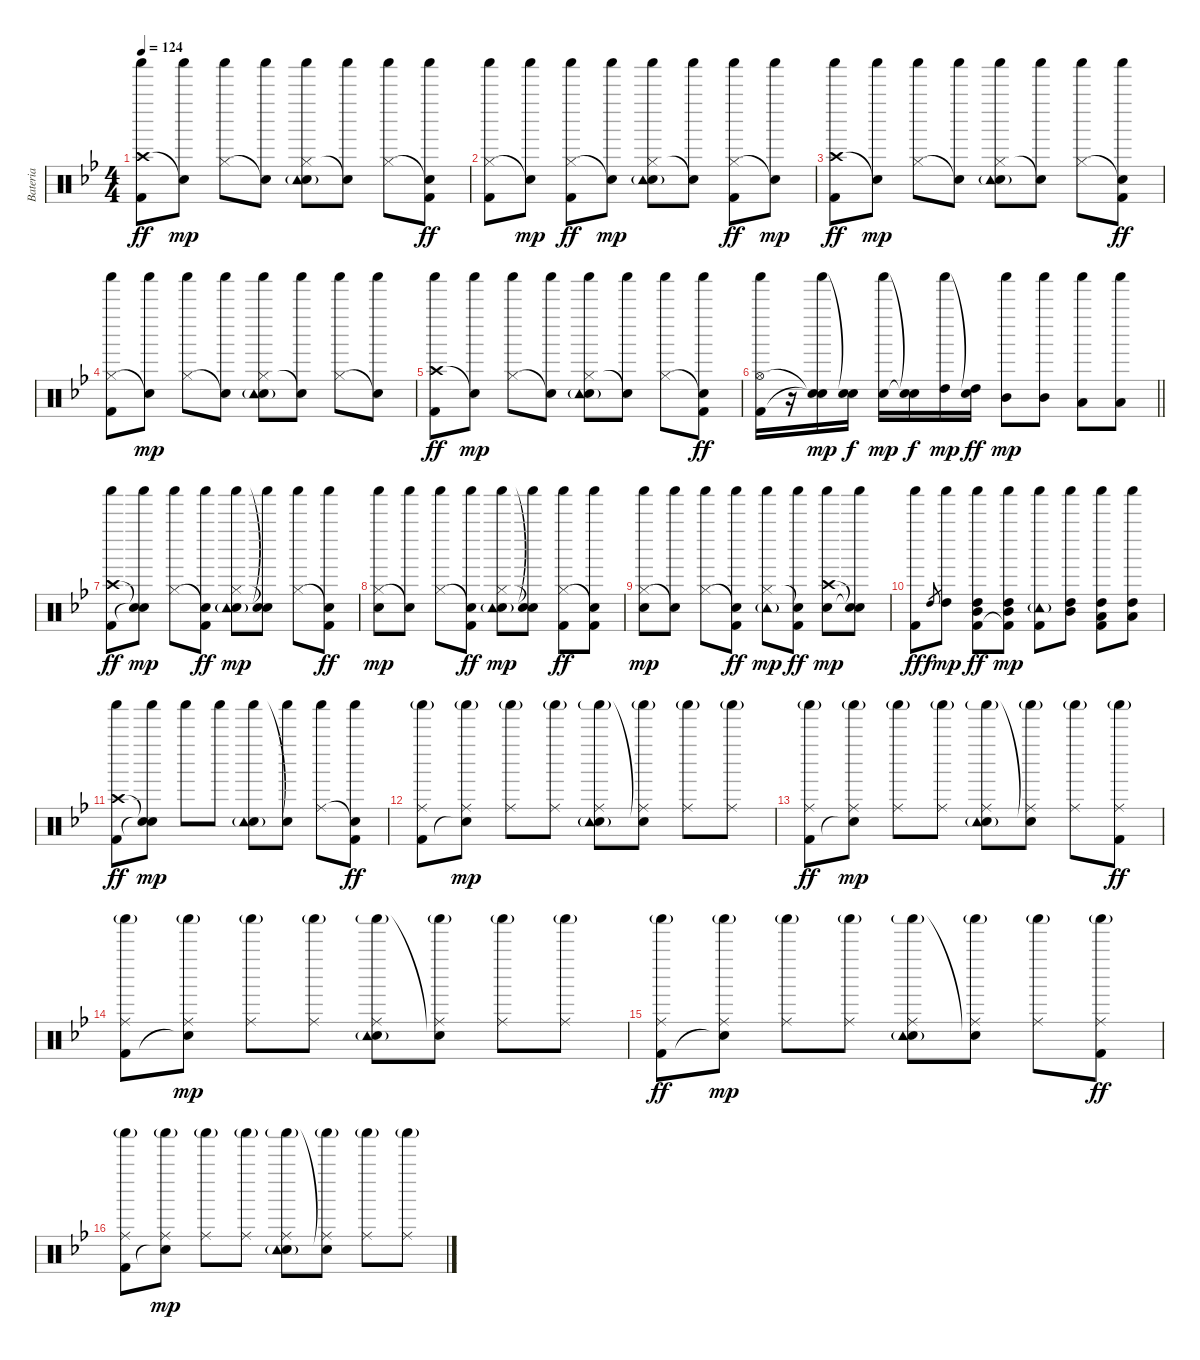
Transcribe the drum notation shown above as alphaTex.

\track ("Bateria" "Bateria") {instrument percussion}
\staff {score}
\articulation defaults
\ts (4 4)
\tempo 124
\clef neutral
\ks bb
("Crash high (hit)" "Shaker (hit)" "Kick (hit) 2").8{dy ff} ("Snare (hit)"{t} "Shaker (hit)").8{dy mp} ("Hi-Hat (closed)" "Shaker (hit)").8 ("Snare (hit)"{t} "Shaker (hit)").8 ("Hi-Hat (closed)" "Electric Snare (hit)" "Shaker (hit)" "Tambourine (hit)"{g}).8 ("Snare (hit)"{t} "Shaker (hit)").8 ("Hi-Hat (closed)" "Shaker (hit)").8 ("Snare (hit)"{t} "Shaker (hit)" "Kick (hit) 2").8{dy ff} |
("Hi-Hat (closed)" "Shaker (hit)" "Kick (hit) 2").8 ("Snare (hit)"{t} "Shaker (hit)").8{dy mp} ("Hi-Hat (closed)" "Shaker (hit)" "Kick (hit) 2").8{dy ff} ("Snare (hit)"{t} "Shaker (hit)").8{dy mp} ("Hi-Hat (closed)" "Electric Snare (hit)" "Shaker (hit)" "Tambourine (hit)"{g}).8 ("Snare (hit)"{t} "Shaker (hit)").8 ("Hi-Hat (closed)" "Shaker (hit)" "Kick (hit) 2").8{dy ff} ("Snare (hit)"{t} "Shaker (hit)").8{dy mp} |
("Crash high (hit)" "Shaker (hit)" "Kick (hit) 2").8{dy ff} ("Snare (hit)"{t} "Shaker (hit)").8{dy mp} ("Hi-Hat (closed)" "Shaker (hit)").8 ("Snare (hit)"{t} "Shaker (hit)").8 ("Hi-Hat (closed)" "Electric Snare (hit)" "Shaker (hit)" "Tambourine (hit)"{g}).8 ("Snare (hit)"{t} "Shaker (hit)").8 ("Hi-Hat (closed)" "Shaker (hit)").8 ("Snare (hit)"{t} "Shaker (hit)" "Kick (hit) 2").8{dy ff} |
("Hi-Hat (closed)" "Shaker (hit)" "Kick (hit) 2").8 ("Snare (hit)"{t} "Shaker (hit)").8{dy mp} ("Hi-Hat (closed)" "Shaker (hit)").8 ("Snare (hit)"{t} "Shaker (hit)").8 ("Hi-Hat (closed)" "Electric Snare (hit)" "Shaker (hit)" "Tambourine (hit)"{g}).8 ("Snare (hit)"{t} "Shaker (hit)").8 ("Hi-Hat (closed)" "Shaker (hit)").8 ("Snare (hit)"{t} "Shaker (hit)").8 |
("Crash high (hit)" "Shaker (hit)" "Kick (hit) 2").8{dy ff} ("Snare (hit)"{t} "Shaker (hit)").8{dy mp} ("Hi-Hat (closed)" "Shaker (hit)").8 ("Snare (hit)"{t} "Shaker (hit)").8 ("Hi-Hat (closed)" "Electric Snare (hit)" "Shaker (hit)" "Tambourine (hit)"{g}).8 ("Snare (hit)"{t} "Shaker (hit)").8 ("Hi-Hat (closed)" "Shaker (hit)").8 ("Snare (hit)"{t} "Shaker (hit)" "Kick (hit) 2").8{dy ff} |
\barLineRight lightlight
("Hi-Hat (open)" "Shaker (hit)" "Kick (hit) 2").16 r.16 ("Snare (hit)"{t} "Shaker (hit)" "Snare (hit)"{t}).16{dy mp} ("Electric Snare (hit)" "Snare (hit)"{t}).16{dy f} ("Electric Snare (hit)" "Shaker (hit)").16{dy mp} ("Snare (hit)"{t} "Snare (hit)"{t}).16{dy f} ("High Tom (hit)" "Shaker (hit)").16{dy mp} ("High Tom (hit)" "Snare (hit)"{t}).16{dy ff} ("Mid Tom (hit)" "Shaker (hit)").8{dy mp} ("Mid Tom (hit)" "Shaker (hit)").8 ("Low Tom (hit)" "Shaker (hit)").8 ("Low Tom (hit)" "Shaker (hit)").8 |
("Crash high (hit)" "Shaker (hit)" "Kick (hit) 2").8{dy ff} ("Snare (hit)"{t} "Shaker (hit)" "Snare (hit)"{t}).8{dy mp} ("Hi-Hat (closed)" "Shaker (hit)").8 ("Snare (hit)"{t} "Shaker (hit)" "Kick (hit) 2").8{dy ff} ("Hi-Hat (closed)" "Electric Snare (hit)" "Shaker (hit)" "Tambourine (hit)"{g}).8{dy mp} ("Snare (hit)"{t} "Shaker (hit)" "Snare (hit)"{t}).8 ("Hi-Hat (closed)" "Shaker (hit)").8 ("Snare (hit)"{t} "Shaker (hit)" "Kick (hit) 2").8{dy ff} |
("Hi-Hat (closed)" "Electric Snare (hit)" "Shaker (hit)").8{dy mp} ("Snare (hit)"{t} "Shaker (hit)").8 ("Hi-Hat (closed)" "Shaker (hit)").8 ("Snare (hit)"{t} "Shaker (hit)" "Kick (hit) 2").8{dy ff} ("Hi-Hat (closed)" "Electric Snare (hit)" "Shaker (hit)" "Tambourine (hit)"{g}).8{dy mp} ("Snare (hit)"{t} "Shaker (hit)" "Snare (hit)"{t}).8 ("Hi-Hat (closed)" "Shaker (hit)" "Kick (hit) 2").8{dy ff} ("Snare (hit)"{t} "Shaker (hit)" "Kick (hit) 2").8 |
("Hi-Hat (closed)" "Electric Snare (hit)" "Shaker (hit)").8{dy mp} ("Snare (hit)"{t} "Shaker (hit)").8 ("Hi-Hat (closed)" "Shaker (hit)").8 ("Snare (hit)"{t} "Shaker (hit)" "Kick (hit) 2").8{dy ff} ("Hi-Hat (closed)" "Shaker (hit)" "Tambourine (hit)"{g}).8{dy mp} ("Snare (hit)"{t} "Shaker (hit)" "Kick (hit) 2").8{dy ff} ("Crash high (hit)" "Electric Snare (hit)" "Shaker (hit)").8{dy mp} ("Snare (hit)"{t} "Snare (hit)"{t} "Shaker (hit)").8 |
("Shaker (hit)" "Kick (hit) 2").8{dy ff} "High Tom (hit)".8{gr dy f} ("High Tom (hit)" "Shaker (hit)").8{dy mp} ("High Tom (hit)" "Mid Tom (hit)" "Shaker (hit)" "Kick (hit) 2").8{dy ff} ("High Tom (hit)" "Mid Tom (hit)" "Shaker (hit)" "Kick (hit) 2"{t}).8{dy mp} ("Kick (hit) 2" "Shaker (hit)" "Tambourine (hit)"{g}).8 ("High Tom (hit)" "Mid Tom (hit)" "Shaker (hit)").8 ("High Tom (hit)" "Low Tom (hit)" "Kick (hit) 2" "Shaker (hit)").8 ("High Tom (hit)" "Low Tom (hit)" "Shaker (hit)").8 |
("Crash high (hit)" "Shaker (hit)" "Kick (hit) 2").8{dy ff} ("Snare (hit)"{t} "Shaker (hit)" "Snare (hit)"{t}).8{dy mp} "Shaker (hit)".8 "Shaker (hit)".8 ("Electric Snare (hit)" "Shaker (hit)" "Tambourine (hit)"{g}).8 ("Shaker (hit)" "Snare (hit)"{t}).8 ("Ride (middle)" "Shaker (hit)").8 ("Snare (hit)"{t} "Shaker (hit)" "Kick (hit) 2").8{dy ff} |
("Ride (middle)" "Shaker (hit)"{g} "Kick (hit) 2").8 ("Ride (middle)" "Shaker (hit)"{g} "Snare (hit)"{t}).8{dy mp} ("Ride (middle)" "Shaker (hit)"{g}).8 ("Ride (middle)" "Shaker (hit)"{g}).8 ("Ride (middle)" "Electric Snare (hit)" "Shaker (hit)"{g} "Tambourine (hit)"{g}).8 ("Ride (middle)" "Shaker (hit)"{g} "Snare (hit)"{t}).8 ("Ride (middle)" "Shaker (hit)"{g}).8 ("Ride (middle)" "Shaker (hit)"{g}).8 |
("Ride (middle)" "Shaker (hit)"{g} "Kick (hit) 2").8{dy ff} ("Ride (middle)" "Shaker (hit)"{g} "Snare (hit)"{t}).8{dy mp} ("Ride (middle)" "Shaker (hit)"{g}).8 ("Ride (middle)" "Shaker (hit)"{g}).8 ("Ride (middle)" "Electric Snare (hit)" "Shaker (hit)"{g} "Tambourine (hit)"{g}).8 ("Ride (middle)" "Shaker (hit)"{g} "Snare (hit)"{t}).8 ("Ride (middle)" "Shaker (hit)"{g}).8 ("Ride (middle)" "Shaker (hit)"{g} "Kick (hit) 2").8{dy ff} |
("Ride (middle)" "Shaker (hit)"{g} "Kick (hit) 2").8 ("Ride (middle)" "Shaker (hit)"{g} "Snare (hit)"{t}).8{dy mp} ("Ride (middle)" "Shaker (hit)"{g}).8 ("Ride (middle)" "Shaker (hit)"{g}).8 ("Ride (middle)" "Electric Snare (hit)" "Shaker (hit)"{g} "Tambourine (hit)"{g}).8 ("Ride (middle)" "Shaker (hit)"{g} "Snare (hit)"{t}).8 ("Ride (middle)" "Shaker (hit)"{g}).8 ("Ride (middle)" "Shaker (hit)"{g}).8 |
("Ride (middle)" "Shaker (hit)"{g} "Kick (hit) 2").8{dy ff} ("Ride (middle)" "Shaker (hit)"{g} "Snare (hit)"{t}).8{dy mp} ("Ride (middle)" "Shaker (hit)"{g}).8 ("Ride (middle)" "Shaker (hit)"{g}).8 ("Ride (middle)" "Electric Snare (hit)" "Shaker (hit)"{g} "Tambourine (hit)"{g}).8 ("Ride (middle)" "Shaker (hit)"{g} "Snare (hit)"{t}).8 ("Ride (middle)" "Shaker (hit)"{g}).8 ("Ride (middle)" "Shaker (hit)"{g} "Kick (hit) 2").8{dy ff} |
("Ride (middle)" "Shaker (hit)"{g} "Kick (hit) 2").8 ("Ride (middle)" "Shaker (hit)"{g} "Snare (hit)"{t}).8{dy mp} ("Ride (middle)" "Shaker (hit)"{g}).8 ("Ride (middle)" "Shaker (hit)"{g}).8 ("Ride (middle)" "Electric Snare (hit)" "Shaker (hit)"{g} "Tambourine (hit)"{g}).8 ("Ride (middle)" "Shaker (hit)"{g} "Snare (hit)"{t}).8 ("Ride (middle)" "Shaker (hit)"{g}).8 ("Ride (middle)" "Shaker (hit)"{g}).8
